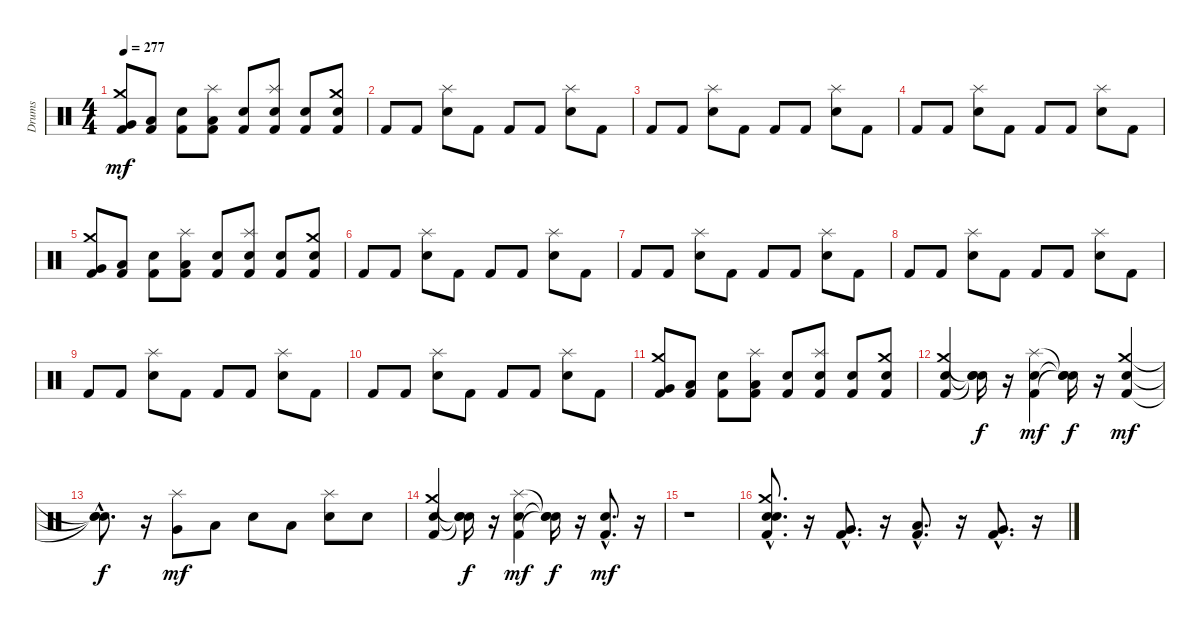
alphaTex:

\track ("Drums" "Drums") {instrument percussion}
\staff {score}
\articulation defaults
\ts (4 4)
\tempo 277
\clef neutral
\ks c
("Kick (hit) 2" "Crash medium (hit)" "Very Low Tom (hit)").8{dy mf} ("Kick (hit) 2" "Low Floor Tom (hit)").8 ("Electric Snare (hit)" "Kick (hit) 2").8 ("Splash (hit)" "Low Floor Tom (hit)" "Kick (hit) 2").8 ("Electric Snare (hit)" "Kick (hit) 2").8 ("Snare (hit) 2" "Kick (hit) 2" "Splash (hit)").8 ("Kick (hit) 2" "Electric Snare (hit)").8 ("Crash medium (hit)" "Kick (hit) 2" "Snare (hit) 2").8 |
"Kick (hit) 2".8 "Kick (hit) 2".8 ("Electric Snare (hit)" "Splash (hit)").8 "Kick (hit) 2".8 "Kick (hit) 2".8 "Kick (hit) 2".8 ("Electric Snare (hit)" "Splash (hit)").8 "Kick (hit) 2".8 |
"Kick (hit) 2".8 "Kick (hit) 2".8 ("Splash (hit)" "Electric Snare (hit)").8 "Kick (hit) 2".8 "Kick (hit) 2".8 "Kick (hit) 2".8 ("Splash (hit)" "Electric Snare (hit)").8 "Kick (hit) 2".8 |
"Kick (hit) 2".8 "Kick (hit) 2".8 ("Electric Snare (hit)" "Splash (hit)").8 "Kick (hit) 2".8 "Kick (hit) 2".8 "Kick (hit) 2".8 ("Splash (hit)" "Electric Snare (hit)").8 "Kick (hit) 2".8 |
("Very Low Tom (hit)" "Crash medium (hit)" "Kick (hit) 2").8 ("Kick (hit) 2" "Low Floor Tom (hit)").8 ("Electric Snare (hit)" "Kick (hit) 2").8 ("Splash (hit)" "Low Floor Tom (hit)" "Kick (hit) 2").8 ("Electric Snare (hit)" "Kick (hit) 2").8 ("Splash (hit)" "Snare (hit) 2" "Kick (hit) 2").8 ("Kick (hit) 2" "Electric Snare (hit)").8 ("Snare (hit) 2" "Crash medium (hit)" "Kick (hit) 2").8 |
"Kick (hit) 2".8 "Kick (hit) 2".8 ("Electric Snare (hit)" "Splash (hit)").8 "Kick (hit) 2".8 "Kick (hit) 2".8 "Kick (hit) 2".8 ("Splash (hit)" "Electric Snare (hit)").8 "Kick (hit) 2".8 |
"Kick (hit) 2".8 "Kick (hit) 2".8 ("Electric Snare (hit)" "Splash (hit)").8 "Kick (hit) 2".8 "Kick (hit) 2".8 "Kick (hit) 2".8 ("Splash (hit)" "Electric Snare (hit)").8 "Kick (hit) 2".8 |
"Kick (hit) 2".8 "Kick (hit) 2".8 ("Electric Snare (hit)" "Splash (hit)").8 "Kick (hit) 2".8 "Kick (hit) 2".8 "Kick (hit) 2".8 ("Splash (hit)" "Electric Snare (hit)").8 "Kick (hit) 2".8 |
"Kick (hit) 2".8 "Kick (hit) 2".8 ("Electric Snare (hit)" "Splash (hit)").8 "Kick (hit) 2".8 "Kick (hit) 2".8 "Kick (hit) 2".8 ("Electric Snare (hit)" "Splash (hit)").8 "Kick (hit) 2".8 |
"Kick (hit) 2".8 "Kick (hit) 2".8 ("Splash (hit)" "Electric Snare (hit)").8 "Kick (hit) 2".8 "Kick (hit) 2".8 "Kick (hit) 2".8 ("Electric Snare (hit)" "Splash (hit)").8 "Kick (hit) 2".8 |
("Very Low Tom (hit)" "Crash medium (hit)" "Kick (hit) 2").8 ("Kick (hit) 2" "Low Floor Tom (hit)").8 ("Kick (hit) 2" "Electric Snare (hit)").8 ("Splash (hit)" "Low Floor Tom (hit)" "Kick (hit) 2").8 ("Electric Snare (hit)" "Kick (hit) 2").8 ("Snare (hit) 2" "Kick (hit) 2" "Splash (hit)").8 ("Kick (hit) 2" "Electric Snare (hit)").8 ("Crash medium (hit)" "Snare (hit) 2" "Kick (hit) 2").8 |
("Crash medium (hit)" "Snare (hit) 2" "Kick (hit) 2").4 ("Snare (hit)"{t} "Snare (hit)"{t} "Snare (hit)"{t}).16{dy f} r.16 ("Splash (hit)" "Kick (hit) 2" "Electric Snare (hit)").4{dy mf} ("Snare (hit)"{t} "Snare (hit)"{t} "Snare (hit)"{t}).16{dy f} r.16 ("Kick (hit) 2" "Electric Snare (hit)" "Crash medium (hit)").4{dy mf} |
("Snare (hit)"{hac t} "Snare (hit)"{hac t} "Snare (hit)"{hac t}).8{d dy f} r.16 ("Very Low Tom (hit)" "Splash (hit)").8{dy mf} "Low Floor Tom (hit)".8 "Snare (hit) 2".8 "Low Floor Tom (hit)".8 ("Splash (hit)" "Electric Snare (hit)").8 "Snare (hit) 2".8 |
("Crash medium (hit)" "Snare (hit) 2" "Kick (hit) 2").4 ("Snare (hit)"{t} "Snare (hit)"{t} "Snare (hit)"{t}).16{dy f} r.16 ("Splash (hit)" "Electric Snare (hit)" "Kick (hit) 2").4{dy mf} ("Snare (hit)"{t} "Snare (hit)"{t} "Snare (hit)"{t}).16{dy f} r.16 ("Electric Snare (hit)"{hac} "Kick (hit) 2"{hac}).8{d dy mf} r.16 |
r.1 |
("Electric Snare (hit)"{hac} "Kick (hit) 2"{hac} "Snare (hit) 2"{hac} "Crash medium (hit)"{hac}).8{d} r.16 ("Kick (hit) 2"{hac} "Very Low Tom (hit)"{hac}).8{d} r.16 ("Kick (hit) 2"{hac} "Low Floor Tom (hit)"{hac}).8{d} r.16 ("Very Low Tom (hit)"{hac} "Kick (hit) 2"{hac}).8{d} r.16
